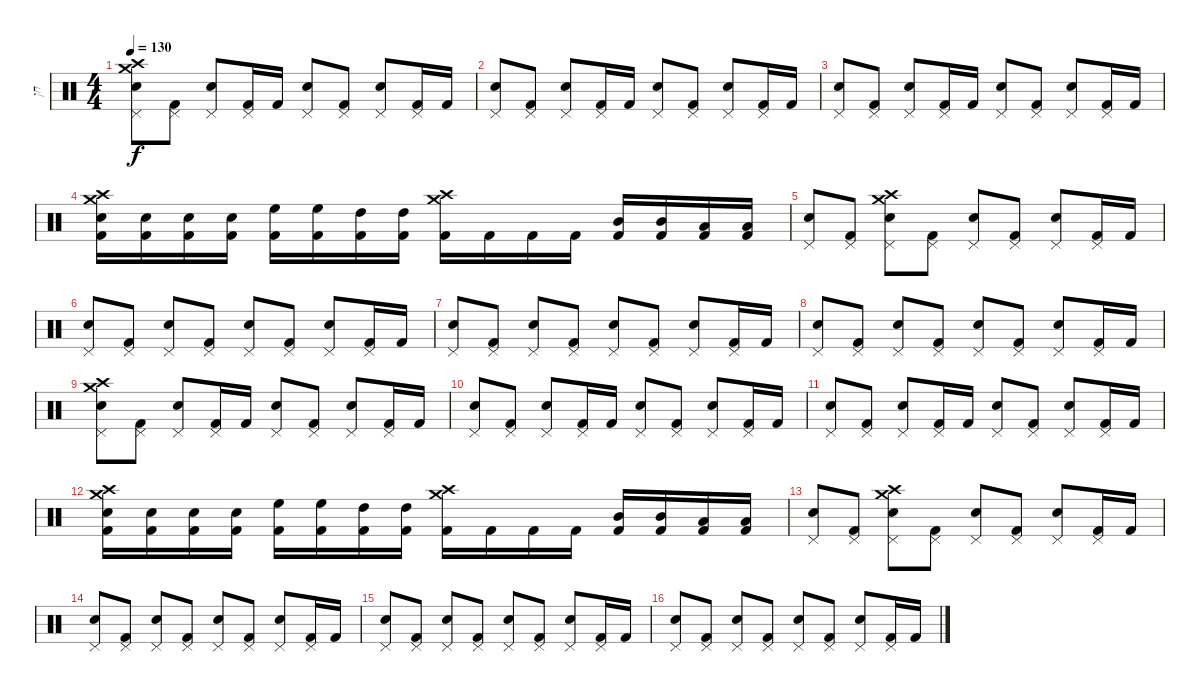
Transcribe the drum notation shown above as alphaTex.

\track ("חן" "חן") {instrument percussion}
\staff {score}
\articulation defaults
\ts (4 4)
\tempo 130
\clef neutral
\ks c
("Crash high (hit)" "Electric Snare (hit)" "Pedal Hi-Hat (hit)" "Crash medium (hit)").8{dy f} ("Pedal Hi-Hat (hit)" "Kick (hit) 2").8 ("Electric Snare (hit)" "Pedal Hi-Hat (hit)").8 ("Pedal Hi-Hat (hit)" "Kick (hit) 2").16 "Kick (hit) 2".16 ("Electric Snare (hit)" "Pedal Hi-Hat (hit)").8 ("Pedal Hi-Hat (hit)" "Kick (hit) 2").8 ("Electric Snare (hit)" "Pedal Hi-Hat (hit)").8 ("Pedal Hi-Hat (hit)" "Kick (hit) 2").16 "Kick (hit) 2".16 |
("Electric Snare (hit)" "Pedal Hi-Hat (hit)").8 ("Pedal Hi-Hat (hit)" "Kick (hit) 2").8 ("Electric Snare (hit)" "Pedal Hi-Hat (hit)").8 ("Pedal Hi-Hat (hit)" "Kick (hit) 2").16 "Kick (hit) 2".16 ("Electric Snare (hit)" "Pedal Hi-Hat (hit)").8 ("Pedal Hi-Hat (hit)" "Kick (hit) 2").8 ("Electric Snare (hit)" "Pedal Hi-Hat (hit)").8 ("Pedal Hi-Hat (hit)" "Kick (hit) 2").16 "Kick (hit) 2".16 |
("Electric Snare (hit)" "Pedal Hi-Hat (hit)").8 ("Pedal Hi-Hat (hit)" "Kick (hit) 2").8 ("Electric Snare (hit)" "Pedal Hi-Hat (hit)").8 ("Pedal Hi-Hat (hit)" "Kick (hit) 2").16 "Kick (hit) 2".16 ("Electric Snare (hit)" "Pedal Hi-Hat (hit)").8 ("Pedal Hi-Hat (hit)" "Kick (hit) 2").8 ("Electric Snare (hit)" "Pedal Hi-Hat (hit)").8 ("Pedal Hi-Hat (hit)" "Kick (hit) 2").16 "Kick (hit) 2".16 |
("Crash medium (hit)" "Crash high (hit)" "Electric Snare (hit)" "Kick (hit) 2").16 ("Electric Snare (hit)" "Kick (hit) 2").16 ("Electric Snare (hit)" "Kick (hit) 2").16 ("Electric Snare (hit)" "Kick (hit) 2").16 ("High Floor Tom (hit)" "Kick (hit) 2").16 ("High Floor Tom (hit)" "Kick (hit) 2").16 ("High Tom (hit)" "Kick (hit) 2").16 ("High Tom (hit)" "Kick (hit) 2").16 ("Crash medium (hit)" "Crash high (hit)" "Kick (hit) 2").16 "Kick (hit) 2".16 "Kick (hit) 2".16 "Kick (hit) 2".16 ("Mid Tom (hit)" "Kick (hit) 2").16 ("Mid Tom (hit)" "Kick (hit) 2").16 ("Low Tom (hit)" "Kick (hit) 2").16 ("Low Tom (hit)" "Kick (hit) 2").16 |
("Electric Snare (hit)" "Pedal Hi-Hat (hit)").8 ("Pedal Hi-Hat (hit)" "Kick (hit) 2").8 ("Crash high (hit)" "Electric Snare (hit)" "Pedal Hi-Hat (hit)" "Crash medium (hit)").8 ("Pedal Hi-Hat (hit)" "Kick (hit) 2").8 ("Electric Snare (hit)" "Pedal Hi-Hat (hit)").8 ("Pedal Hi-Hat (hit)" "Kick (hit) 2").8 ("Electric Snare (hit)" "Pedal Hi-Hat (hit)").8 ("Pedal Hi-Hat (hit)" "Kick (hit) 2").16 "Kick (hit) 2".16 |
("Electric Snare (hit)" "Pedal Hi-Hat (hit)").8 ("Pedal Hi-Hat (hit)" "Kick (hit) 2").8 ("Electric Snare (hit)" "Pedal Hi-Hat (hit)").8 ("Pedal Hi-Hat (hit)" "Kick (hit) 2").8 ("Electric Snare (hit)" "Pedal Hi-Hat (hit)").8 ("Pedal Hi-Hat (hit)" "Kick (hit) 2").8 ("Electric Snare (hit)" "Pedal Hi-Hat (hit)").8 ("Pedal Hi-Hat (hit)" "Kick (hit) 2").16 "Kick (hit) 2".16 |
("Electric Snare (hit)" "Pedal Hi-Hat (hit)").8 ("Pedal Hi-Hat (hit)" "Kick (hit) 2").8 ("Electric Snare (hit)" "Pedal Hi-Hat (hit)").8 ("Pedal Hi-Hat (hit)" "Kick (hit) 2").8 ("Electric Snare (hit)" "Pedal Hi-Hat (hit)").8 ("Pedal Hi-Hat (hit)" "Kick (hit) 2").8 ("Electric Snare (hit)" "Pedal Hi-Hat (hit)").8 ("Pedal Hi-Hat (hit)" "Kick (hit) 2").16 "Kick (hit) 2".16 |
("Electric Snare (hit)" "Pedal Hi-Hat (hit)").8 ("Pedal Hi-Hat (hit)" "Kick (hit) 2").8 ("Electric Snare (hit)" "Pedal Hi-Hat (hit)").8 ("Pedal Hi-Hat (hit)" "Kick (hit) 2").8 ("Electric Snare (hit)" "Pedal Hi-Hat (hit)").8 ("Pedal Hi-Hat (hit)" "Kick (hit) 2").8 ("Electric Snare (hit)" "Pedal Hi-Hat (hit)").8 ("Pedal Hi-Hat (hit)" "Kick (hit) 2").16 "Kick (hit) 2".16 |
("Crash high (hit)" "Electric Snare (hit)" "Pedal Hi-Hat (hit)" "Crash medium (hit)").8 ("Pedal Hi-Hat (hit)" "Kick (hit) 2").8 ("Electric Snare (hit)" "Pedal Hi-Hat (hit)").8 ("Pedal Hi-Hat (hit)" "Kick (hit) 2").16 "Kick (hit) 2".16 ("Electric Snare (hit)" "Pedal Hi-Hat (hit)").8 ("Pedal Hi-Hat (hit)" "Kick (hit) 2").8 ("Electric Snare (hit)" "Pedal Hi-Hat (hit)").8 ("Pedal Hi-Hat (hit)" "Kick (hit) 2").16 "Kick (hit) 2".16 |
("Electric Snare (hit)" "Pedal Hi-Hat (hit)").8 ("Pedal Hi-Hat (hit)" "Kick (hit) 2").8 ("Electric Snare (hit)" "Pedal Hi-Hat (hit)").8 ("Pedal Hi-Hat (hit)" "Kick (hit) 2").16 "Kick (hit) 2".16 ("Electric Snare (hit)" "Pedal Hi-Hat (hit)").8 ("Pedal Hi-Hat (hit)" "Kick (hit) 2").8 ("Electric Snare (hit)" "Pedal Hi-Hat (hit)").8 ("Pedal Hi-Hat (hit)" "Kick (hit) 2").16 "Kick (hit) 2".16 |
("Electric Snare (hit)" "Pedal Hi-Hat (hit)").8 ("Pedal Hi-Hat (hit)" "Kick (hit) 2").8 ("Electric Snare (hit)" "Pedal Hi-Hat (hit)").8 ("Pedal Hi-Hat (hit)" "Kick (hit) 2").16 "Kick (hit) 2".16 ("Electric Snare (hit)" "Pedal Hi-Hat (hit)").8 ("Pedal Hi-Hat (hit)" "Kick (hit) 2").8 ("Electric Snare (hit)" "Pedal Hi-Hat (hit)").8 ("Pedal Hi-Hat (hit)" "Kick (hit) 2").16 "Kick (hit) 2".16 |
("Crash medium (hit)" "Crash high (hit)" "Electric Snare (hit)" "Kick (hit) 2").16 ("Electric Snare (hit)" "Kick (hit) 2").16 ("Electric Snare (hit)" "Kick (hit) 2").16 ("Electric Snare (hit)" "Kick (hit) 2").16 ("High Floor Tom (hit)" "Kick (hit) 2").16 ("High Floor Tom (hit)" "Kick (hit) 2").16 ("High Tom (hit)" "Kick (hit) 2").16 ("High Tom (hit)" "Kick (hit) 2").16 ("Crash medium (hit)" "Crash high (hit)" "Kick (hit) 2").16 "Kick (hit) 2".16 "Kick (hit) 2".16 "Kick (hit) 2".16 ("Mid Tom (hit)" "Kick (hit) 2").16 ("Mid Tom (hit)" "Kick (hit) 2").16 ("Low Tom (hit)" "Kick (hit) 2").16 ("Low Tom (hit)" "Kick (hit) 2").16 |
("Electric Snare (hit)" "Pedal Hi-Hat (hit)").8 ("Pedal Hi-Hat (hit)" "Kick (hit) 2").8 ("Crash high (hit)" "Electric Snare (hit)" "Pedal Hi-Hat (hit)" "Crash medium (hit)").8 ("Pedal Hi-Hat (hit)" "Kick (hit) 2").8 ("Electric Snare (hit)" "Pedal Hi-Hat (hit)").8 ("Pedal Hi-Hat (hit)" "Kick (hit) 2").8 ("Electric Snare (hit)" "Pedal Hi-Hat (hit)").8 ("Pedal Hi-Hat (hit)" "Kick (hit) 2").16 "Kick (hit) 2".16 |
("Electric Snare (hit)" "Pedal Hi-Hat (hit)").8 ("Pedal Hi-Hat (hit)" "Kick (hit) 2").8 ("Electric Snare (hit)" "Pedal Hi-Hat (hit)").8 ("Pedal Hi-Hat (hit)" "Kick (hit) 2").8 ("Electric Snare (hit)" "Pedal Hi-Hat (hit)").8 ("Pedal Hi-Hat (hit)" "Kick (hit) 2").8 ("Electric Snare (hit)" "Pedal Hi-Hat (hit)").8 ("Pedal Hi-Hat (hit)" "Kick (hit) 2").16 "Kick (hit) 2".16 |
("Electric Snare (hit)" "Pedal Hi-Hat (hit)").8 ("Pedal Hi-Hat (hit)" "Kick (hit) 2").8 ("Electric Snare (hit)" "Pedal Hi-Hat (hit)").8 ("Pedal Hi-Hat (hit)" "Kick (hit) 2").8 ("Electric Snare (hit)" "Pedal Hi-Hat (hit)").8 ("Pedal Hi-Hat (hit)" "Kick (hit) 2").8 ("Electric Snare (hit)" "Pedal Hi-Hat (hit)").8 ("Pedal Hi-Hat (hit)" "Kick (hit) 2").16 "Kick (hit) 2".16 |
("Electric Snare (hit)" "Pedal Hi-Hat (hit)").8 ("Pedal Hi-Hat (hit)" "Kick (hit) 2").8 ("Electric Snare (hit)" "Pedal Hi-Hat (hit)").8 ("Pedal Hi-Hat (hit)" "Kick (hit) 2").8 ("Electric Snare (hit)" "Pedal Hi-Hat (hit)").8 ("Pedal Hi-Hat (hit)" "Kick (hit) 2").8 ("Electric Snare (hit)" "Pedal Hi-Hat (hit)").8 ("Pedal Hi-Hat (hit)" "Kick (hit) 2").16 "Kick (hit) 2".16
